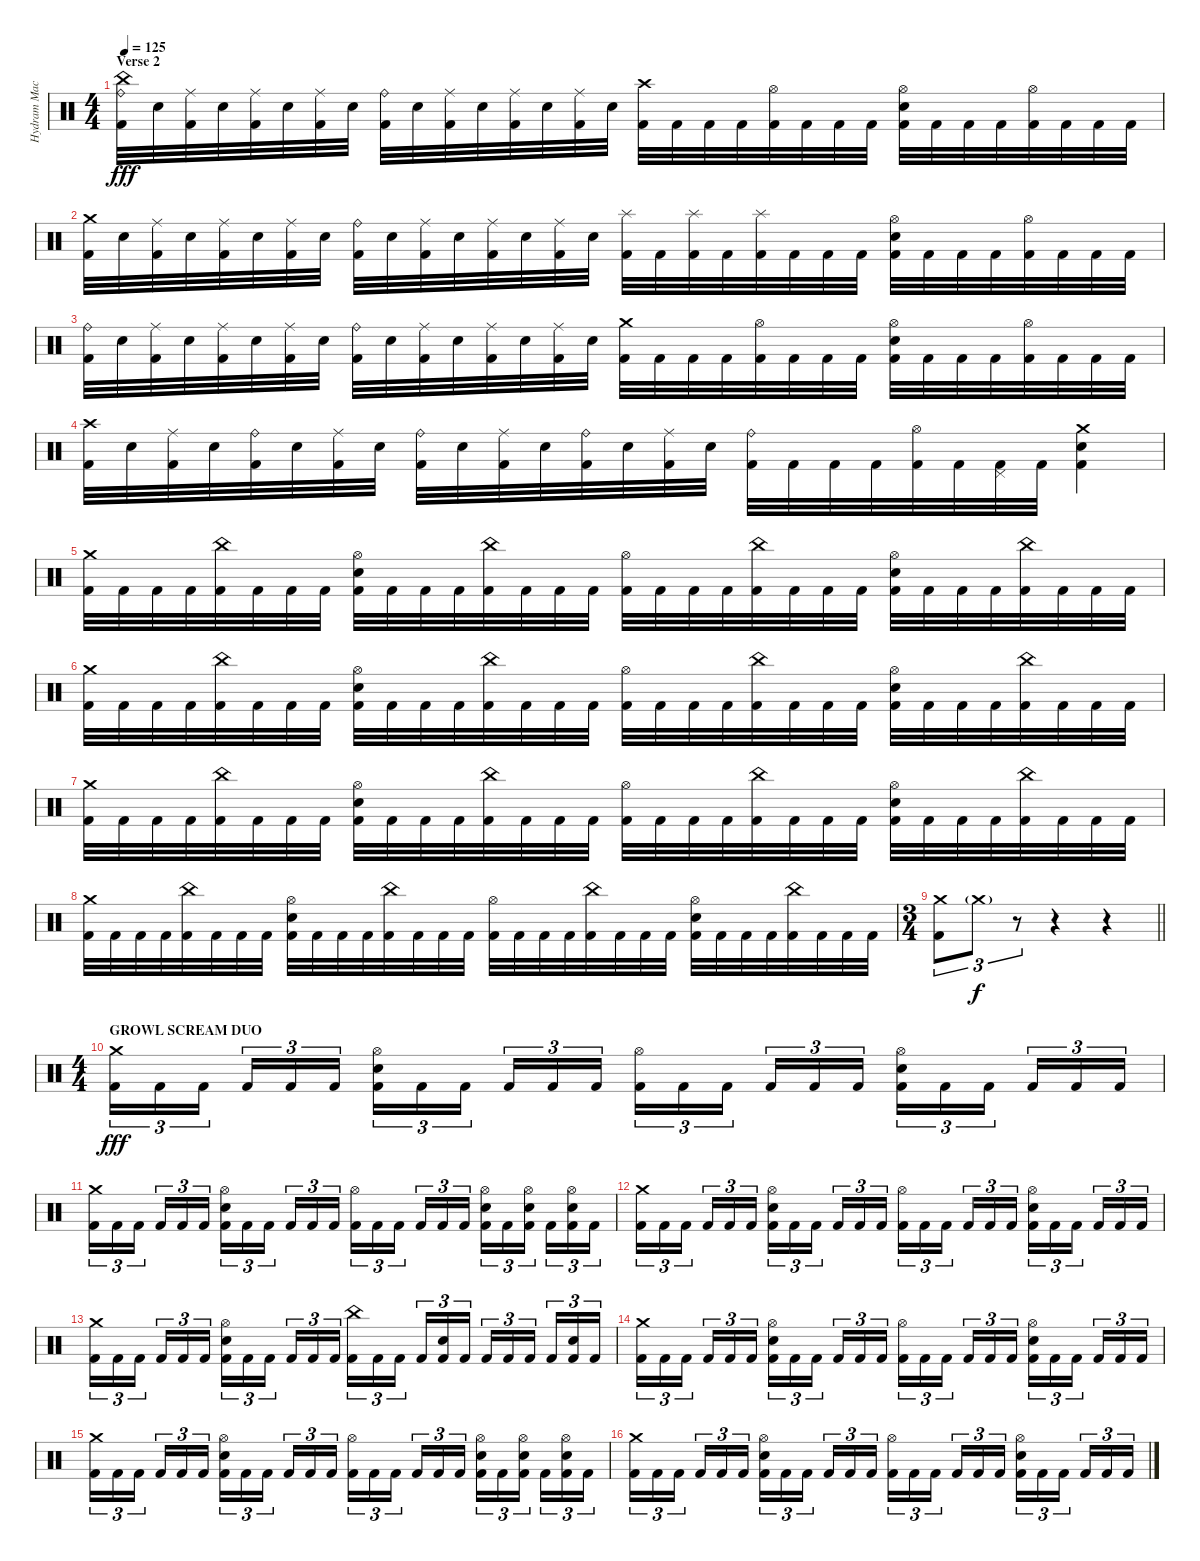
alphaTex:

\track ("Hydram Machine" "Hydram Mac") {instrument percussion}
\staff {score}
\articulation defaults
\ts (4 4)
\section ("" "Verse 2")
\tempo 125
\clef neutral
\ks c
("Ride (bell)" "China (hit)" "Kick (hit) 2").32{dy fff} "Electric Snare (hit)".32 ("Ride (middle)" "Kick (hit) 2").32 "Electric Snare (hit)".32 ("Ride (middle)" "Kick (hit) 2").32 "Electric Snare (hit)".32 ("Ride (middle)" "Kick (hit) 2").32 "Electric Snare (hit)".32 ("Ride (bell)" "Kick (hit) 2").32 "Electric Snare (hit)".32 ("Ride (middle)" "Kick (hit) 2").32 "Electric Snare (hit)".32 ("Ride (middle)" "Kick (hit) 2").32 "Electric Snare (hit)".32 ("Ride (middle)" "Kick (hit) 2").32 "Electric Snare (hit)".32 ("Crash high (hit)" "Kick (hit) 2").32 "Kick (hit) 2".32 "Kick (hit) 2".32 "Kick (hit) 2".32 ("Hi-Hat (open)" "Kick (hit) 2").32 "Kick (hit) 2".32 "Kick (hit) 2".32 "Kick (hit) 2".32 ("Hi-Hat (open)" "Electric Snare (hit)" "Kick (hit) 2").32 "Kick (hit) 2".32 "Kick (hit) 2".32 "Kick (hit) 2".32 ("Hi-Hat (open)" "Kick (hit) 2").32 "Kick (hit) 2".32 "Kick (hit) 2".32 "Kick (hit) 2".32 |
("Crash medium (hit)" "Kick (hit) 2").32 "Electric Snare (hit)".32 ("Ride (middle)" "Kick (hit) 2").32 "Electric Snare (hit)".32 ("Ride (middle)" "Kick (hit) 2").32 "Electric Snare (hit)".32 ("Ride (middle)" "Kick (hit) 2").32 "Electric Snare (hit)".32 ("Ride (bell)" "Kick (hit) 2").32 "Electric Snare (hit)".32 ("Ride (middle)" "Kick (hit) 2").32 "Electric Snare (hit)".32 ("Ride (middle)" "Kick (hit) 2").32 "Electric Snare (hit)".32 ("Ride (middle)" "Kick (hit) 2").32 "Electric Snare (hit)".32 ("Splash (hit)" "Kick (hit) 2").32 "Kick (hit) 2".32 ("Splash (hit)" "Kick (hit) 2").32 "Kick (hit) 2".32 ("Splash (hit)" "Kick (hit) 2").32 "Kick (hit) 2".32 "Kick (hit) 2".32 "Kick (hit) 2".32 ("Hi-Hat (open)" "Electric Snare (hit)" "Kick (hit) 2").32 "Kick (hit) 2".32 "Kick (hit) 2".32 "Kick (hit) 2".32 ("Hi-Hat (open)" "Kick (hit) 2").32 "Kick (hit) 2".32 "Kick (hit) 2".32 "Kick (hit) 2".32 |
("Ride (bell)" "Kick (hit) 2").32 "Electric Snare (hit)".32 ("Ride (middle)" "Kick (hit) 2").32 "Electric Snare (hit)".32 ("Ride (middle)" "Kick (hit) 2").32 "Electric Snare (hit)".32 ("Ride (middle)" "Kick (hit) 2").32 "Electric Snare (hit)".32 ("Ride (bell)" "Kick (hit) 2").32 "Electric Snare (hit)".32 ("Ride (middle)" "Kick (hit) 2").32 "Electric Snare (hit)".32 ("Ride (middle)" "Kick (hit) 2").32 "Electric Snare (hit)".32 ("Ride (middle)" "Kick (hit) 2").32 "Electric Snare (hit)".32 ("Crash medium (hit)" "Kick (hit) 2").32 "Kick (hit) 2".32 "Kick (hit) 2".32 "Kick (hit) 2".32 ("Hi-Hat (open)" "Kick (hit) 2").32 "Kick (hit) 2".32 "Kick (hit) 2".32 "Kick (hit) 2".32 ("Hi-Hat (open)" "Electric Snare (hit)" "Kick (hit) 2").32 "Kick (hit) 2".32 "Kick (hit) 2".32 "Kick (hit) 2".32 ("Hi-Hat (open)" "Kick (hit) 2").32 "Kick (hit) 2".32 "Kick (hit) 2".32 "Kick (hit) 2".32 |
("Crash high (hit)" "Kick (hit) 2").32 "Electric Snare (hit)".32 ("Ride (middle)" "Kick (hit) 2").32 "Electric Snare (hit)".32 ("Ride (bell)" "Kick (hit) 2").32 "Electric Snare (hit)".32 ("Ride (middle)" "Kick (hit) 2").32 "Electric Snare (hit)".32 ("Ride (bell)" "Kick (hit) 2").32 "Electric Snare (hit)".32 ("Ride (middle)" "Kick (hit) 2").32 "Electric Snare (hit)".32 ("Ride (bell)" "Kick (hit) 2").32 "Electric Snare (hit)".32 ("Ride (middle)" "Kick (hit) 2").32 "Electric Snare (hit)".32 ("Ride (bell)" "Kick (hit) 2").32 "Kick (hit) 2".32 "Kick (hit) 2".32 "Kick (hit) 2".32 ("Hi-Hat (open)" "Kick (hit) 2").32 "Kick (hit) 2".32 ("Pedal Hi-Hat (hit)" "Kick (hit) 2").32 "Kick (hit) 2".32 ("Crash medium (hit)" "Electric Snare (hit)" "Kick (hit) 2").4 |
("Crash medium (hit)" "Kick (hit) 2").32 "Kick (hit) 2".32 "Kick (hit) 2".32 "Kick (hit) 2".32 ("China (hit)" "Kick (hit) 2").32 "Kick (hit) 2".32 "Kick (hit) 2".32 "Kick (hit) 2".32 ("Hi-Hat (open)" "Electric Snare (hit)" "Kick (hit) 2").32 "Kick (hit) 2".32 "Kick (hit) 2".32 "Kick (hit) 2".32 ("China (hit)" "Kick (hit) 2").32 "Kick (hit) 2".32 "Kick (hit) 2".32 "Kick (hit) 2".32 ("Hi-Hat (open)" "Kick (hit) 2").32 "Kick (hit) 2".32 "Kick (hit) 2".32 "Kick (hit) 2".32 ("China (hit)" "Kick (hit) 2").32 "Kick (hit) 2".32 "Kick (hit) 2".32 "Kick (hit) 2".32 ("Hi-Hat (open)" "Electric Snare (hit)" "Kick (hit) 2").32 "Kick (hit) 2".32 "Kick (hit) 2".32 "Kick (hit) 2".32 ("China (hit)" "Kick (hit) 2").32 "Kick (hit) 2".32 "Kick (hit) 2".32 "Kick (hit) 2".32 |
("Crash medium (hit)" "Kick (hit) 2").32 "Kick (hit) 2".32 "Kick (hit) 2".32 "Kick (hit) 2".32 ("China (hit)" "Kick (hit) 2").32 "Kick (hit) 2".32 "Kick (hit) 2".32 "Kick (hit) 2".32 ("Hi-Hat (open)" "Electric Snare (hit)" "Kick (hit) 2").32 "Kick (hit) 2".32 "Kick (hit) 2".32 "Kick (hit) 2".32 ("China (hit)" "Kick (hit) 2").32 "Kick (hit) 2".32 "Kick (hit) 2".32 "Kick (hit) 2".32 ("Hi-Hat (open)" "Kick (hit) 2").32 "Kick (hit) 2".32 "Kick (hit) 2".32 "Kick (hit) 2".32 ("China (hit)" "Kick (hit) 2").32 "Kick (hit) 2".32 "Kick (hit) 2".32 "Kick (hit) 2".32 ("Hi-Hat (open)" "Electric Snare (hit)" "Kick (hit) 2").32 "Kick (hit) 2".32 "Kick (hit) 2".32 "Kick (hit) 2".32 ("China (hit)" "Kick (hit) 2").32 "Kick (hit) 2".32 "Kick (hit) 2".32 "Kick (hit) 2".32 |
("Crash medium (hit)" "Kick (hit) 2").32 "Kick (hit) 2".32 "Kick (hit) 2".32 "Kick (hit) 2".32 ("China (hit)" "Kick (hit) 2").32 "Kick (hit) 2".32 "Kick (hit) 2".32 "Kick (hit) 2".32 ("Hi-Hat (open)" "Electric Snare (hit)" "Kick (hit) 2").32 "Kick (hit) 2".32 "Kick (hit) 2".32 "Kick (hit) 2".32 ("China (hit)" "Kick (hit) 2").32 "Kick (hit) 2".32 "Kick (hit) 2".32 "Kick (hit) 2".32 ("Hi-Hat (open)" "Kick (hit) 2").32 "Kick (hit) 2".32 "Kick (hit) 2".32 "Kick (hit) 2".32 ("China (hit)" "Kick (hit) 2").32 "Kick (hit) 2".32 "Kick (hit) 2".32 "Kick (hit) 2".32 ("Hi-Hat (open)" "Electric Snare (hit)" "Kick (hit) 2").32 "Kick (hit) 2".32 "Kick (hit) 2".32 "Kick (hit) 2".32 ("China (hit)" "Kick (hit) 2").32 "Kick (hit) 2".32 "Kick (hit) 2".32 "Kick (hit) 2".32 |
("Crash medium (hit)" "Kick (hit) 2").32 "Kick (hit) 2".32 "Kick (hit) 2".32 "Kick (hit) 2".32 ("China (hit)" "Kick (hit) 2").32 "Kick (hit) 2".32 "Kick (hit) 2".32 "Kick (hit) 2".32 ("Hi-Hat (open)" "Electric Snare (hit)" "Kick (hit) 2").32 "Kick (hit) 2".32 "Kick (hit) 2".32 "Kick (hit) 2".32 ("China (hit)" "Kick (hit) 2").32 "Kick (hit) 2".32 "Kick (hit) 2".32 "Kick (hit) 2".32 ("Hi-Hat (open)" "Kick (hit) 2").32 "Kick (hit) 2".32 "Kick (hit) 2".32 "Kick (hit) 2".32 ("China (hit)" "Kick (hit) 2").32 "Kick (hit) 2".32 "Kick (hit) 2".32 "Kick (hit) 2".32 ("Hi-Hat (open)" "Electric Snare (hit)" "Kick (hit) 2").32 "Kick (hit) 2".32 "Kick (hit) 2".32 "Kick (hit) 2".32 ("China (hit)" "Kick (hit) 2").32 "Kick (hit) 2".32 "Kick (hit) 2".32 "Kick (hit) 2".32 |
\ts (3 4)
\barLineRight lightlight
("Crash medium (hit)" "Kick (hit) 2").8{tu (3 2)} "Crash medium (hit)"{g}.8{tu (3 2) dy f} r.8{tu (3 2)} r.4 r.4 |
\ts (4 4)
\section ("" "GROWL SCREAM DUO")
("Crash medium (hit)" "Kick (hit) 2").16{tu (3 2) dy fff} "Kick (hit) 2".16{tu (3 2)} "Kick (hit) 2".16{tu (3 2) beam splitsecondary} "Kick (hit) 2".16{tu (3 2)} "Kick (hit) 2".16{tu (3 2)} "Kick (hit) 2".16{tu (3 2)} ("Hi-Hat (open)" "Electric Snare (hit)" "Kick (hit) 2").16{tu (3 2)} "Kick (hit) 2".16{tu (3 2)} "Kick (hit) 2".16{tu (3 2) beam splitsecondary} "Kick (hit) 2".16{tu (3 2)} "Kick (hit) 2".16{tu (3 2)} "Kick (hit) 2".16{tu (3 2)} ("Hi-Hat (open)" "Kick (hit) 2").16{tu (3 2)} "Kick (hit) 2".16{tu (3 2)} "Kick (hit) 2".16{tu (3 2) beam splitsecondary} "Kick (hit) 2".16{tu (3 2)} "Kick (hit) 2".16{tu (3 2)} "Kick (hit) 2".16{tu (3 2)} ("Hi-Hat (open)" "Electric Snare (hit)" "Kick (hit) 2").16{tu (3 2)} "Kick (hit) 2".16{tu (3 2)} "Kick (hit) 2".16{tu (3 2) beam splitsecondary} "Kick (hit) 2".16{tu (3 2)} "Kick (hit) 2".16{tu (3 2)} "Kick (hit) 2".16{tu (3 2)} |
("Crash medium (hit)" "Kick (hit) 2").16{tu (3 2)} "Kick (hit) 2".16{tu (3 2)} "Kick (hit) 2".16{tu (3 2) beam splitsecondary} "Kick (hit) 2".16{tu (3 2)} "Kick (hit) 2".16{tu (3 2)} "Kick (hit) 2".16{tu (3 2)} ("Hi-Hat (open)" "Electric Snare (hit)" "Kick (hit) 2").16{tu (3 2)} "Kick (hit) 2".16{tu (3 2)} "Kick (hit) 2".16{tu (3 2) beam splitsecondary} "Kick (hit) 2".16{tu (3 2)} "Kick (hit) 2".16{tu (3 2)} "Kick (hit) 2".16{tu (3 2)} ("Hi-Hat (open)" "Kick (hit) 2").16{tu (3 2)} "Kick (hit) 2".16{tu (3 2)} "Kick (hit) 2".16{tu (3 2) beam splitsecondary} "Kick (hit) 2".16{tu (3 2)} "Kick (hit) 2".16{tu (3 2)} "Kick (hit) 2".16{tu (3 2)} ("Hi-Hat (open)" "Electric Snare (hit)" "Kick (hit) 2").16{tu (3 2)} "Kick (hit) 2".16{tu (3 2)} ("Hi-Hat (open)" "Electric Snare (hit)" "Kick (hit) 2").16{tu (3 2) beam splitsecondary} "Kick (hit) 2".16{tu (3 2)} ("Hi-Hat (open)" "Electric Snare (hit)" "Kick (hit) 2").16{tu (3 2)} "Kick (hit) 2".16{tu (3 2)} |
("Crash medium (hit)" "Kick (hit) 2").16{tu (3 2)} "Kick (hit) 2".16{tu (3 2)} "Kick (hit) 2".16{tu (3 2) beam splitsecondary} "Kick (hit) 2".16{tu (3 2)} "Kick (hit) 2".16{tu (3 2)} "Kick (hit) 2".16{tu (3 2)} ("Hi-Hat (open)" "Electric Snare (hit)" "Kick (hit) 2").16{tu (3 2)} "Kick (hit) 2".16{tu (3 2)} "Kick (hit) 2".16{tu (3 2) beam splitsecondary} "Kick (hit) 2".16{tu (3 2)} "Kick (hit) 2".16{tu (3 2)} "Kick (hit) 2".16{tu (3 2)} ("Hi-Hat (open)" "Kick (hit) 2").16{tu (3 2)} "Kick (hit) 2".16{tu (3 2)} "Kick (hit) 2".16{tu (3 2) beam splitsecondary} "Kick (hit) 2".16{tu (3 2)} "Kick (hit) 2".16{tu (3 2)} "Kick (hit) 2".16{tu (3 2)} ("Hi-Hat (open)" "Electric Snare (hit)" "Kick (hit) 2").16{tu (3 2)} "Kick (hit) 2".16{tu (3 2)} "Kick (hit) 2".16{tu (3 2) beam splitsecondary} "Kick (hit) 2".16{tu (3 2)} "Kick (hit) 2".16{tu (3 2)} "Kick (hit) 2".16{tu (3 2)} |
("Crash medium (hit)" "Kick (hit) 2").16{tu (3 2)} "Kick (hit) 2".16{tu (3 2)} "Kick (hit) 2".16{tu (3 2) beam splitsecondary} "Kick (hit) 2".16{tu (3 2)} "Kick (hit) 2".16{tu (3 2)} "Kick (hit) 2".16{tu (3 2)} ("Hi-Hat (open)" "Electric Snare (hit)" "Kick (hit) 2").16{tu (3 2)} "Kick (hit) 2".16{tu (3 2)} "Kick (hit) 2".16{tu (3 2) beam splitsecondary} "Kick (hit) 2".16{tu (3 2)} "Kick (hit) 2".16{tu (3 2)} "Kick (hit) 2".16{tu (3 2)} ("China (hit)" "Kick (hit) 2").16{tu (3 2)} "Kick (hit) 2".16{tu (3 2)} "Kick (hit) 2".16{tu (3 2) beam splitsecondary} "Kick (hit) 2".16{tu (3 2)} ("Electric Snare (hit)" "Kick (hit) 2").16{tu (3 2)} "Kick (hit) 2".16{tu (3 2)} "Kick (hit) 2".16{tu (3 2)} "Kick (hit) 2".16{tu (3 2)} "Kick (hit) 2".16{tu (3 2) beam splitsecondary} "Kick (hit) 2".16{tu (3 2)} ("Electric Snare (hit)" "Kick (hit) 2").16{tu (3 2)} "Kick (hit) 2".16{tu (3 2)} |
("Crash medium (hit)" "Kick (hit) 2").16{tu (3 2)} "Kick (hit) 2".16{tu (3 2)} "Kick (hit) 2".16{tu (3 2) beam splitsecondary} "Kick (hit) 2".16{tu (3 2)} "Kick (hit) 2".16{tu (3 2)} "Kick (hit) 2".16{tu (3 2)} ("Hi-Hat (open)" "Electric Snare (hit)" "Kick (hit) 2").16{tu (3 2)} "Kick (hit) 2".16{tu (3 2)} "Kick (hit) 2".16{tu (3 2) beam splitsecondary} "Kick (hit) 2".16{tu (3 2)} "Kick (hit) 2".16{tu (3 2)} "Kick (hit) 2".16{tu (3 2)} ("Hi-Hat (open)" "Kick (hit) 2").16{tu (3 2)} "Kick (hit) 2".16{tu (3 2)} "Kick (hit) 2".16{tu (3 2) beam splitsecondary} "Kick (hit) 2".16{tu (3 2)} "Kick (hit) 2".16{tu (3 2)} "Kick (hit) 2".16{tu (3 2)} ("Hi-Hat (open)" "Electric Snare (hit)" "Kick (hit) 2").16{tu (3 2)} "Kick (hit) 2".16{tu (3 2)} "Kick (hit) 2".16{tu (3 2) beam splitsecondary} "Kick (hit) 2".16{tu (3 2)} "Kick (hit) 2".16{tu (3 2)} "Kick (hit) 2".16{tu (3 2)} |
("Crash medium (hit)" "Kick (hit) 2").16{tu (3 2)} "Kick (hit) 2".16{tu (3 2)} "Kick (hit) 2".16{tu (3 2) beam splitsecondary} "Kick (hit) 2".16{tu (3 2)} "Kick (hit) 2".16{tu (3 2)} "Kick (hit) 2".16{tu (3 2)} ("Hi-Hat (open)" "Electric Snare (hit)" "Kick (hit) 2").16{tu (3 2)} "Kick (hit) 2".16{tu (3 2)} "Kick (hit) 2".16{tu (3 2) beam splitsecondary} "Kick (hit) 2".16{tu (3 2)} "Kick (hit) 2".16{tu (3 2)} "Kick (hit) 2".16{tu (3 2)} ("Hi-Hat (open)" "Kick (hit) 2").16{tu (3 2)} "Kick (hit) 2".16{tu (3 2)} "Kick (hit) 2".16{tu (3 2) beam splitsecondary} "Kick (hit) 2".16{tu (3 2)} "Kick (hit) 2".16{tu (3 2)} "Kick (hit) 2".16{tu (3 2)} ("Hi-Hat (open)" "Electric Snare (hit)" "Kick (hit) 2").16{tu (3 2)} "Kick (hit) 2".16{tu (3 2)} ("Hi-Hat (open)" "Electric Snare (hit)" "Kick (hit) 2").16{tu (3 2) beam splitsecondary} "Kick (hit) 2".16{tu (3 2)} ("Hi-Hat (open)" "Electric Snare (hit)" "Kick (hit) 2").16{tu (3 2)} "Kick (hit) 2".16{tu (3 2)} |
("Crash medium (hit)" "Kick (hit) 2").16{tu (3 2)} "Kick (hit) 2".16{tu (3 2)} "Kick (hit) 2".16{tu (3 2) beam splitsecondary} "Kick (hit) 2".16{tu (3 2)} "Kick (hit) 2".16{tu (3 2)} "Kick (hit) 2".16{tu (3 2)} ("Hi-Hat (open)" "Electric Snare (hit)" "Kick (hit) 2").16{tu (3 2)} "Kick (hit) 2".16{tu (3 2)} "Kick (hit) 2".16{tu (3 2) beam splitsecondary} "Kick (hit) 2".16{tu (3 2)} "Kick (hit) 2".16{tu (3 2)} "Kick (hit) 2".16{tu (3 2)} ("Hi-Hat (open)" "Kick (hit) 2").16{tu (3 2)} "Kick (hit) 2".16{tu (3 2)} "Kick (hit) 2".16{tu (3 2) beam splitsecondary} "Kick (hit) 2".16{tu (3 2)} "Kick (hit) 2".16{tu (3 2)} "Kick (hit) 2".16{tu (3 2)} ("Hi-Hat (open)" "Electric Snare (hit)" "Kick (hit) 2").16{tu (3 2)} "Kick (hit) 2".16{tu (3 2)} "Kick (hit) 2".16{tu (3 2) beam splitsecondary} "Kick (hit) 2".16{tu (3 2)} "Kick (hit) 2".16{tu (3 2)} "Kick (hit) 2".16{tu (3 2)}
